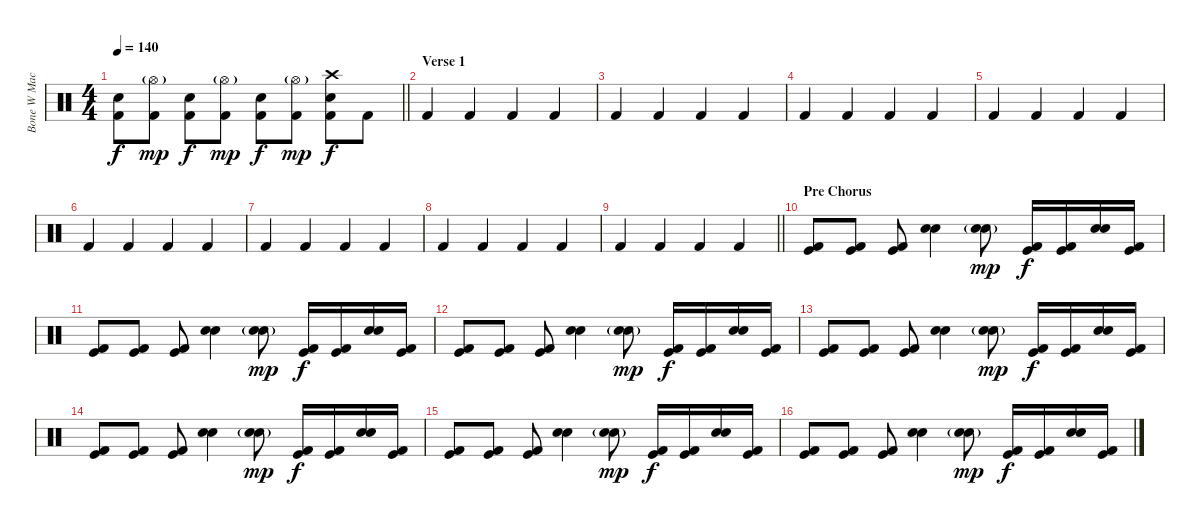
\track ("Bone W Machine" "Bone W Mac") {instrument percussion}
\staff {score}
\articulation defaults
\ts (4 4)
\tempo 140
\clef neutral
\barLineRight lightlight
\ks c
("Electric Snare (hit)" "Kick (hit) 2").8{dy f} ("Hi-Hat (open)"{g} "Kick (hit) 2").8{dy mp} ("Electric Snare (hit)" "Kick (hit) 2").8{dy f} ("Hi-Hat (open)"{g} "Kick (hit) 2").8{dy mp} ("Electric Snare (hit)" "Kick (hit) 2").8{dy f} ("Hi-Hat (open)"{g} "Kick (hit) 2").8{dy mp} ("Crash high (hit)" "Electric Snare (hit)" "Kick (hit) 2").8{dy f} "Kick (hit) 2".8 |
\section ("" "Verse 1")
"Kick (hit) 2".4 "Kick (hit) 2".4 "Kick (hit) 2".4 "Kick (hit) 2".4 |
"Kick (hit) 2".4 "Kick (hit) 2".4 "Kick (hit) 2".4 "Kick (hit) 2".4 |
"Kick (hit) 2".4 "Kick (hit) 2".4 "Kick (hit) 2".4 "Kick (hit) 2".4 |
"Kick (hit) 2".4 "Kick (hit) 2".4 "Kick (hit) 2".4 "Kick (hit) 2".4 |
"Kick (hit) 2".4 "Kick (hit) 2".4 "Kick (hit) 2".4 "Kick (hit) 2".4 |
"Kick (hit) 2".4 "Kick (hit) 2".4 "Kick (hit) 2".4 "Kick (hit) 2".4 |
"Kick (hit) 2".4 "Kick (hit) 2".4 "Kick (hit) 2".4 "Kick (hit) 2".4 |
\barLineRight lightlight "Kick (hit) 2".4 "Kick (hit) 2".4 "Kick (hit) 2".4 "Kick (hit) 2".4
|
\section ("" "Pre Chorus")
("Kick (hit)" "Kick (hit) 2").8 ("Kick (hit)" "Kick (hit) 2").8 ("Kick (hit)" "Kick (hit) 2").8 ("Snare (hit) 2" "Electric Snare (hit)").4 ("Snare (hit) 2"{g} "Electric Snare (hit)"{g}).8{dy mp} ("Kick (hit)" "Kick (hit) 2").16{dy f} ("Kick (hit)" "Kick (hit) 2").16 ("Snare (hit) 2" "Electric Snare (hit)").16 ("Kick (hit)" "Kick (hit) 2").16 |
("Kick (hit)" "Kick (hit) 2").8 ("Kick (hit)" "Kick (hit) 2").8 ("Kick (hit)" "Kick (hit) 2").8 ("Snare (hit) 2" "Electric Snare (hit)").4 ("Snare (hit) 2"{g} "Electric Snare (hit)"{g}).8{dy mp} ("Kick (hit)" "Kick (hit) 2").16{dy f} ("Kick (hit)" "Kick (hit) 2").16 ("Snare (hit) 2" "Electric Snare (hit)").16 ("Kick (hit)" "Kick (hit) 2").16 |
("Kick (hit)" "Kick (hit) 2").8 ("Kick (hit)" "Kick (hit) 2").8 ("Kick (hit)" "Kick (hit) 2").8 ("Snare (hit) 2" "Electric Snare (hit)").4 ("Snare (hit) 2"{g} "Electric Snare (hit)"{g}).8{dy mp} ("Kick (hit)" "Kick (hit) 2").16{dy f} ("Kick (hit)" "Kick (hit) 2").16 ("Snare (hit) 2" "Electric Snare (hit)").16 ("Kick (hit)" "Kick (hit) 2").16 |
("Kick (hit)" "Kick (hit) 2").8 ("Kick (hit)" "Kick (hit) 2").8 ("Kick (hit)" "Kick (hit) 2").8 ("Snare (hit) 2" "Electric Snare (hit)").4 ("Snare (hit) 2"{g} "Electric Snare (hit)"{g}).8{dy mp} ("Kick (hit)" "Kick (hit) 2").16{dy f} ("Kick (hit)" "Kick (hit) 2").16 ("Snare (hit) 2" "Electric Snare (hit)").16 ("Kick (hit)" "Kick (hit) 2").16 |
("Kick (hit)" "Kick (hit) 2").8 ("Kick (hit)" "Kick (hit) 2").8 ("Kick (hit)" "Kick (hit) 2").8 ("Snare (hit) 2" "Electric Snare (hit)").4 ("Snare (hit) 2"{g} "Electric Snare (hit)"{g}).8{dy mp} ("Kick (hit)" "Kick (hit) 2").16{dy f} ("Kick (hit)" "Kick (hit) 2").16 ("Snare (hit) 2" "Electric Snare (hit)").16 ("Kick (hit)" "Kick (hit) 2").16 |
("Kick (hit)" "Kick (hit) 2").8 ("Kick (hit)" "Kick (hit) 2").8 ("Kick (hit)" "Kick (hit) 2").8 ("Snare (hit) 2" "Electric Snare (hit)").4 ("Snare (hit) 2"{g} "Electric Snare (hit)"{g}).8{dy mp} ("Kick (hit)" "Kick (hit) 2").16{dy f} ("Kick (hit)" "Kick (hit) 2").16 ("Snare (hit) 2" "Electric Snare (hit)").16 ("Kick (hit)" "Kick (hit) 2").16 |
("Kick (hit)" "Kick (hit) 2").8 ("Kick (hit)" "Kick (hit) 2").8 ("Kick (hit)" "Kick (hit) 2").8 ("Snare (hit) 2" "Electric Snare (hit)").4 ("Snare (hit) 2"{g} "Electric Snare (hit)"{g}).8{dy mp} ("Kick (hit)" "Kick (hit) 2").16{dy f} ("Kick (hit)" "Kick (hit) 2").16 ("Snare (hit) 2" "Electric Snare (hit)").16 ("Kick (hit)" "Kick (hit) 2").16
